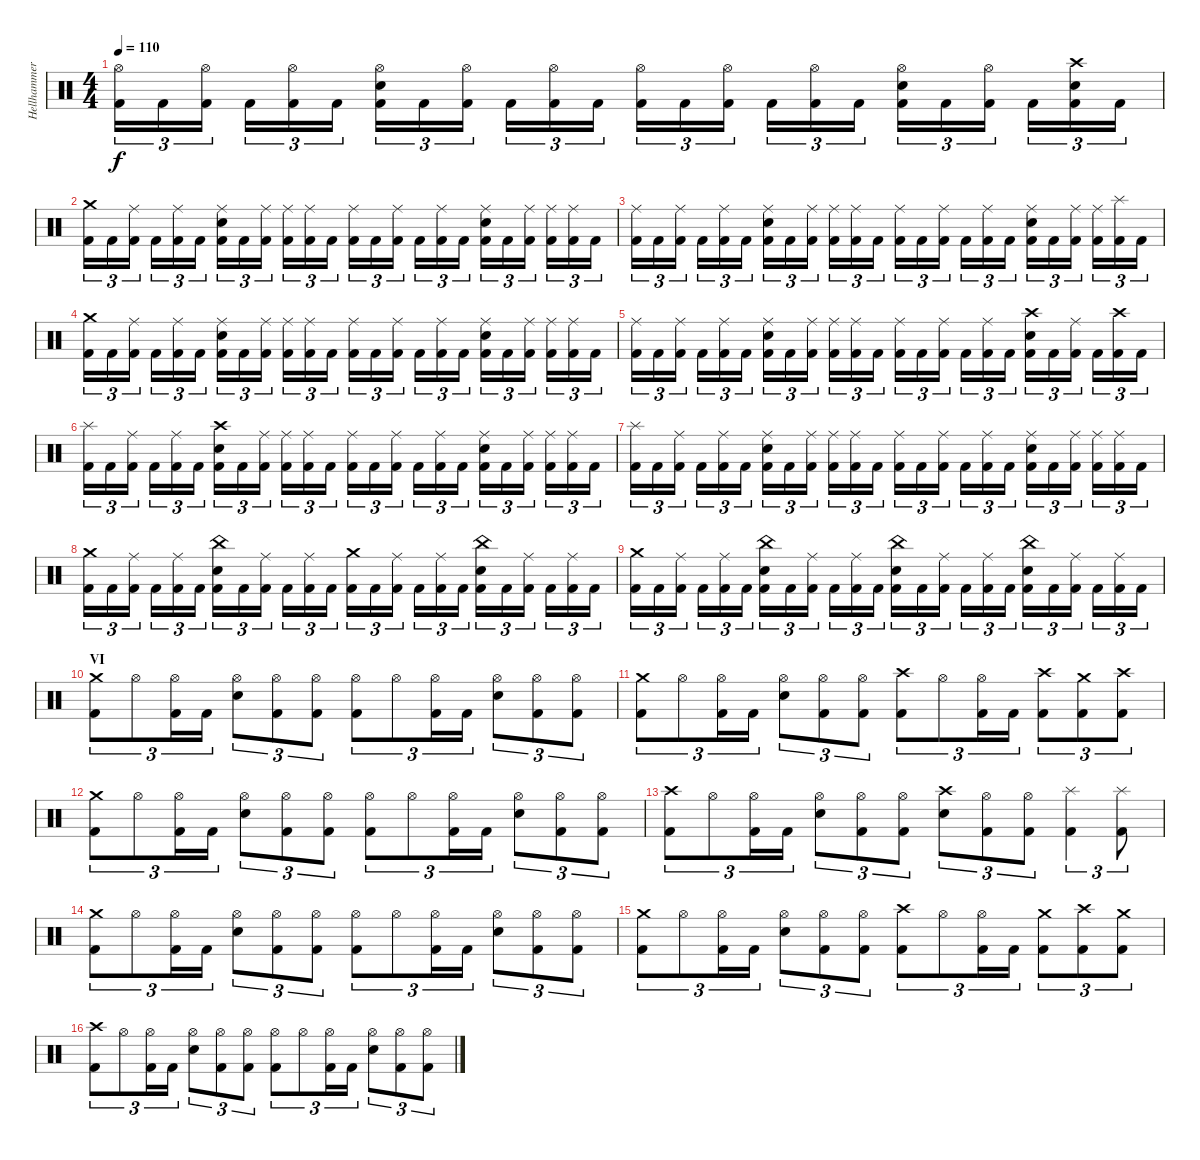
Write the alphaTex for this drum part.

\track ("Hellhammer" "Hellhammer") {instrument percussion}
\staff {score}
\articulation defaults
\ts (4 4)
\tempo 110
\clef neutral
\ks c
("Kick (hit) 2" "Hi-Hat (open)").16{tu (3 2) dy f} "Kick (hit) 2".16{tu (3 2)} ("Kick (hit) 2" "Hi-Hat (open)").16{tu (3 2)} "Kick (hit) 2".16{tu (3 2)} ("Kick (hit) 2" "Hi-Hat (open)").16{tu (3 2)} "Kick (hit) 2".16{tu (3 2)} ("Kick (hit) 2" "Electric Snare (hit)" "Hi-Hat (open)").16{tu (3 2)} "Kick (hit) 2".16{tu (3 2)} ("Kick (hit) 2" "Hi-Hat (open)").16{tu (3 2)} "Kick (hit) 2".16{tu (3 2)} ("Kick (hit) 2" "Hi-Hat (open)").16{tu (3 2)} "Kick (hit) 2".16{tu (3 2)} ("Kick (hit) 2" "Hi-Hat (open)").16{tu (3 2)} "Kick (hit) 2".16{tu (3 2)} ("Kick (hit) 2" "Hi-Hat (open)").16{tu (3 2)} "Kick (hit) 2".16{tu (3 2)} ("Kick (hit) 2" "Hi-Hat (open)").16{tu (3 2)} "Kick (hit) 2".16{tu (3 2)} ("Kick (hit) 2" "Electric Snare (hit)" "Hi-Hat (open)").16{tu (3 2)} "Kick (hit) 2".16{tu (3 2)} ("Kick (hit) 2" "Hi-Hat (open)").16{tu (3 2)} "Kick (hit) 2".16{tu (3 2)} ("Kick (hit) 2" "Electric Snare (hit)" "Crash high (hit)").16{tu (3 2)} "Kick (hit) 2".16{tu (3 2)} |
("Kick (hit) 2" "Crash medium (hit)").16{tu (3 2)} "Kick (hit) 2".16{tu (3 2)} ("Kick (hit) 2" "Ride (middle)").16{tu (3 2)} "Kick (hit) 2".16{tu (3 2)} ("Kick (hit) 2" "Ride (middle)").16{tu (3 2)} "Kick (hit) 2".16{tu (3 2)} ("Kick (hit) 2" "Electric Snare (hit)" "Ride (middle)").16{tu (3 2)} "Kick (hit) 2".16{tu (3 2)} ("Kick (hit) 2" "Ride (middle)").16{tu (3 2)} ("Kick (hit) 2" "Ride (middle)").16{tu (3 2)} ("Kick (hit) 2" "Ride (middle)").16{tu (3 2)} "Kick (hit) 2".16{tu (3 2)} ("Kick (hit) 2" "Ride (middle)").16{tu (3 2)} "Kick (hit) 2".16{tu (3 2)} ("Kick (hit) 2" "Ride (middle)").16{tu (3 2)} "Kick (hit) 2".16{tu (3 2)} ("Kick (hit) 2" "Ride (middle)").16{tu (3 2)} "Kick (hit) 2".16{tu (3 2)} ("Kick (hit) 2" "Electric Snare (hit)" "Ride (middle)").16{tu (3 2)} "Kick (hit) 2".16{tu (3 2)} ("Kick (hit) 2" "Ride (middle)").16{tu (3 2)} ("Kick (hit) 2" "Ride (middle)").16{tu (3 2)} ("Kick (hit) 2" "Ride (middle)").16{tu (3 2)} "Kick (hit) 2".16{tu (3 2)} |
("Kick (hit) 2" "Ride (middle)").16{tu (3 2)} "Kick (hit) 2".16{tu (3 2)} ("Kick (hit) 2" "Ride (middle)").16{tu (3 2)} "Kick (hit) 2".16{tu (3 2)} ("Kick (hit) 2" "Ride (middle)").16{tu (3 2)} "Kick (hit) 2".16{tu (3 2)} ("Kick (hit) 2" "Electric Snare (hit)" "Ride (middle)").16{tu (3 2)} "Kick (hit) 2".16{tu (3 2)} ("Kick (hit) 2" "Ride (middle)").16{tu (3 2)} ("Kick (hit) 2" "Ride (middle)").16{tu (3 2)} ("Kick (hit) 2" "Ride (middle)").16{tu (3 2)} "Kick (hit) 2".16{tu (3 2)} ("Kick (hit) 2" "Ride (middle)").16{tu (3 2)} "Kick (hit) 2".16{tu (3 2)} ("Kick (hit) 2" "Ride (middle)").16{tu (3 2)} "Kick (hit) 2".16{tu (3 2)} ("Kick (hit) 2" "Ride (middle)").16{tu (3 2)} "Kick (hit) 2".16{tu (3 2)} ("Kick (hit) 2" "Electric Snare (hit)" "Ride (middle)").16{tu (3 2)} "Kick (hit) 2".16{tu (3 2)} ("Kick (hit) 2" "Ride (middle)").16{tu (3 2)} ("Kick (hit) 2" "Ride (middle)").16{tu (3 2)} ("Kick (hit) 2" "Splash (hit)").16{tu (3 2)} "Kick (hit) 2".16{tu (3 2)} |
("Kick (hit) 2" "Crash medium (hit)").16{tu (3 2)} "Kick (hit) 2".16{tu (3 2)} ("Kick (hit) 2" "Ride (middle)").16{tu (3 2)} "Kick (hit) 2".16{tu (3 2)} ("Kick (hit) 2" "Ride (middle)").16{tu (3 2)} "Kick (hit) 2".16{tu (3 2)} ("Kick (hit) 2" "Electric Snare (hit)" "Ride (middle)").16{tu (3 2)} "Kick (hit) 2".16{tu (3 2)} ("Kick (hit) 2" "Ride (middle)").16{tu (3 2)} ("Kick (hit) 2" "Ride (middle)").16{tu (3 2)} ("Kick (hit) 2" "Ride (middle)").16{tu (3 2)} "Kick (hit) 2".16{tu (3 2)} ("Kick (hit) 2" "Ride (middle)").16{tu (3 2)} "Kick (hit) 2".16{tu (3 2)} ("Kick (hit) 2" "Ride (middle)").16{tu (3 2)} "Kick (hit) 2".16{tu (3 2)} ("Kick (hit) 2" "Ride (middle)").16{tu (3 2)} "Kick (hit) 2".16{tu (3 2)} ("Kick (hit) 2" "Electric Snare (hit)" "Ride (middle)").16{tu (3 2)} "Kick (hit) 2".16{tu (3 2)} ("Kick (hit) 2" "Ride (middle)").16{tu (3 2)} ("Kick (hit) 2" "Ride (middle)").16{tu (3 2)} ("Kick (hit) 2" "Ride (middle)").16{tu (3 2)} "Kick (hit) 2".16{tu (3 2)} |
("Kick (hit) 2" "Ride (middle)").16{tu (3 2)} "Kick (hit) 2".16{tu (3 2)} ("Kick (hit) 2" "Ride (middle)").16{tu (3 2)} "Kick (hit) 2".16{tu (3 2)} ("Kick (hit) 2" "Ride (middle)").16{tu (3 2)} "Kick (hit) 2".16{tu (3 2)} ("Kick (hit) 2" "Electric Snare (hit)" "Ride (middle)").16{tu (3 2)} "Kick (hit) 2".16{tu (3 2)} ("Kick (hit) 2" "Ride (middle)").16{tu (3 2)} ("Kick (hit) 2" "Ride (middle)").16{tu (3 2)} ("Kick (hit) 2" "Ride (middle)").16{tu (3 2)} "Kick (hit) 2".16{tu (3 2)} ("Kick (hit) 2" "Ride (middle)").16{tu (3 2)} "Kick (hit) 2".16{tu (3 2)} ("Kick (hit) 2" "Ride (middle)").16{tu (3 2)} "Kick (hit) 2".16{tu (3 2)} ("Kick (hit) 2" "Ride (middle)").16{tu (3 2)} "Kick (hit) 2".16{tu (3 2)} ("Kick (hit) 2" "Electric Snare (hit)" "Crash high (hit)").16{tu (3 2)} "Kick (hit) 2".16{tu (3 2)} ("Kick (hit) 2" "Ride (middle)").16{tu (3 2)} "Kick (hit) 2".16{tu (3 2)} ("Kick (hit) 2" "Crash high (hit)").16{tu (3 2)} "Kick (hit) 2".16{tu (3 2)} |
("Kick (hit) 2" "Splash (hit)").16{tu (3 2)} "Kick (hit) 2".16{tu (3 2)} ("Kick (hit) 2" "Ride (middle)").16{tu (3 2)} "Kick (hit) 2".16{tu (3 2)} ("Kick (hit) 2" "Ride (middle)").16{tu (3 2)} "Kick (hit) 2".16{tu (3 2)} ("Kick (hit) 2" "Electric Snare (hit)" "Crash high (hit)").16{tu (3 2)} "Kick (hit) 2".16{tu (3 2)} ("Kick (hit) 2" "Ride (middle)").16{tu (3 2)} ("Kick (hit) 2" "Ride (middle)").16{tu (3 2)} ("Kick (hit) 2" "Ride (middle)").16{tu (3 2)} "Kick (hit) 2".16{tu (3 2)} ("Kick (hit) 2" "Ride (middle)").16{tu (3 2)} "Kick (hit) 2".16{tu (3 2)} ("Kick (hit) 2" "Ride (middle)").16{tu (3 2)} "Kick (hit) 2".16{tu (3 2)} ("Kick (hit) 2" "Ride (middle)").16{tu (3 2)} "Kick (hit) 2".16{tu (3 2)} ("Kick (hit) 2" "Electric Snare (hit)" "Ride (middle)").16{tu (3 2)} "Kick (hit) 2".16{tu (3 2)} ("Kick (hit) 2" "Ride (middle)").16{tu (3 2)} ("Kick (hit) 2" "Ride (middle)").16{tu (3 2)} ("Kick (hit) 2" "Ride (middle)").16{tu (3 2)} "Kick (hit) 2".16{tu (3 2)} |
("Kick (hit) 2" "Splash (hit)").16{tu (3 2)} "Kick (hit) 2".16{tu (3 2)} ("Kick (hit) 2" "Ride (middle)").16{tu (3 2)} "Kick (hit) 2".16{tu (3 2)} ("Kick (hit) 2" "Ride (middle)").16{tu (3 2)} "Kick (hit) 2".16{tu (3 2)} ("Kick (hit) 2" "Electric Snare (hit)" "Ride (middle)").16{tu (3 2)} "Kick (hit) 2".16{tu (3 2)} ("Kick (hit) 2" "Ride (middle)").16{tu (3 2)} ("Kick (hit) 2" "Ride (middle)").16{tu (3 2)} ("Kick (hit) 2" "Ride (middle)").16{tu (3 2)} "Kick (hit) 2".16{tu (3 2)} ("Kick (hit) 2" "Ride (middle)").16{tu (3 2)} "Kick (hit) 2".16{tu (3 2)} ("Kick (hit) 2" "Ride (middle)").16{tu (3 2)} "Kick (hit) 2".16{tu (3 2)} ("Kick (hit) 2" "Ride (middle)").16{tu (3 2)} "Kick (hit) 2".16{tu (3 2)} ("Kick (hit) 2" "Electric Snare (hit)" "Ride (middle)").16{tu (3 2)} "Kick (hit) 2".16{tu (3 2)} ("Kick (hit) 2" "Ride (middle)").16{tu (3 2)} ("Kick (hit) 2" "Ride (middle)").16{tu (3 2)} ("Kick (hit) 2" "Ride (middle)").16{tu (3 2)} "Kick (hit) 2".16{tu (3 2)} |
("Kick (hit) 2" "Crash medium (hit)").16{tu (3 2)} "Kick (hit) 2".16{tu (3 2)} ("Kick (hit) 2" "Ride (middle)").16{tu (3 2)} "Kick (hit) 2".16{tu (3 2)} ("Kick (hit) 2" "Ride (middle)").16{tu (3 2)} "Kick (hit) 2".16{tu (3 2)} ("Kick (hit) 2" "Electric Snare (hit)" "China (hit)").16{tu (3 2)} "Kick (hit) 2".16{tu (3 2)} ("Kick (hit) 2" "Ride (middle)").16{tu (3 2)} "Kick (hit) 2".16{tu (3 2)} ("Kick (hit) 2" "Ride (middle)").16{tu (3 2)} "Kick (hit) 2".16{tu (3 2)} ("Kick (hit) 2" "Crash medium (hit)").16{tu (3 2)} "Kick (hit) 2".16{tu (3 2)} ("Kick (hit) 2" "Ride (middle)").16{tu (3 2)} "Kick (hit) 2".16{tu (3 2)} ("Kick (hit) 2" "Ride (middle)").16{tu (3 2)} "Kick (hit) 2".16{tu (3 2)} ("Kick (hit) 2" "Electric Snare (hit)" "China (hit)").16{tu (3 2)} "Kick (hit) 2".16{tu (3 2)} ("Kick (hit) 2" "Ride (middle)").16{tu (3 2)} "Kick (hit) 2".16{tu (3 2)} ("Kick (hit) 2" "Ride (middle)").16{tu (3 2)} "Kick (hit) 2".16{tu (3 2)} |
("Kick (hit) 2" "Crash medium (hit)").16{tu (3 2)} "Kick (hit) 2".16{tu (3 2)} ("Kick (hit) 2" "Ride (middle)").16{tu (3 2)} "Kick (hit) 2".16{tu (3 2)} ("Kick (hit) 2" "Ride (middle)").16{tu (3 2)} "Kick (hit) 2".16{tu (3 2)} ("Kick (hit) 2" "Electric Snare (hit)" "China (hit)").16{tu (3 2)} "Kick (hit) 2".16{tu (3 2)} ("Kick (hit) 2" "Ride (middle)").16{tu (3 2)} "Kick (hit) 2".16{tu (3 2)} ("Kick (hit) 2" "Ride (middle)").16{tu (3 2)} "Kick (hit) 2".16{tu (3 2)} ("Kick (hit) 2" "Electric Snare (hit)" "China (hit)").16{tu (3 2)} "Kick (hit) 2".16{tu (3 2)} ("Kick (hit) 2" "Ride (middle)").16{tu (3 2)} "Kick (hit) 2".16{tu (3 2)} ("Kick (hit) 2" "Ride (middle)").16{tu (3 2)} "Kick (hit) 2".16{tu (3 2)} ("Kick (hit) 2" "Electric Snare (hit)" "China (hit)").16{tu (3 2)} "Kick (hit) 2".16{tu (3 2)} ("Kick (hit) 2" "Ride (middle)").16{tu (3 2)} "Kick (hit) 2".16{tu (3 2)} ("Kick (hit) 2" "Ride (middle)").16{tu (3 2)} "Kick (hit) 2".16{tu (3 2)} |
\section ("" "VI")
("Kick (hit) 2" "Crash medium (hit)").8{tu (3 2)} "Hi-Hat (open)".8{tu (3 2)} ("Kick (hit) 2" "Hi-Hat (open)").16{tu (3 2)} "Kick (hit) 2".16{tu (3 2)} ("Electric Snare (hit)" "Hi-Hat (open)").8{tu (3 2)} ("Kick (hit) 2" "Hi-Hat (open)").8{tu (3 2)} ("Kick (hit) 2" "Hi-Hat (open)").8{tu (3 2)} ("Kick (hit) 2" "Hi-Hat (open)").8{tu (3 2)} "Hi-Hat (open)".8{tu (3 2)} ("Kick (hit) 2" "Hi-Hat (open)").16{tu (3 2)} "Kick (hit) 2".16{tu (3 2)} ("Electric Snare (hit)" "Hi-Hat (open)").8{tu (3 2)} ("Kick (hit) 2" "Hi-Hat (open)").8{tu (3 2)} ("Kick (hit) 2" "Hi-Hat (open)").8{tu (3 2)} |
("Kick (hit) 2" "Crash medium (hit)").8{tu (3 2)} "Hi-Hat (open)".8{tu (3 2)} ("Kick (hit) 2" "Hi-Hat (open)").16{tu (3 2)} "Kick (hit) 2".16{tu (3 2)} ("Electric Snare (hit)" "Hi-Hat (open)").8{tu (3 2)} ("Kick (hit) 2" "Hi-Hat (open)").8{tu (3 2)} ("Kick (hit) 2" "Hi-Hat (open)").8{tu (3 2)} ("Kick (hit) 2" "Crash high (hit)").8{tu (3 2)} "Hi-Hat (open)".8{tu (3 2)} ("Kick (hit) 2" "Hi-Hat (open)").16{tu (3 2)} "Kick (hit) 2".16{tu (3 2)} ("Kick (hit) 2" "Crash high (hit)").8{tu (3 2)} ("Kick (hit) 2" "Crash medium (hit)").8{tu (3 2)} ("Kick (hit) 2" "Crash high (hit)").8{tu (3 2)} |
("Kick (hit) 2" "Crash medium (hit)").8{tu (3 2)} "Hi-Hat (open)".8{tu (3 2)} ("Kick (hit) 2" "Hi-Hat (open)").16{tu (3 2)} "Kick (hit) 2".16{tu (3 2)} ("Electric Snare (hit)" "Hi-Hat (open)").8{tu (3 2)} ("Kick (hit) 2" "Hi-Hat (open)").8{tu (3 2)} ("Kick (hit) 2" "Hi-Hat (open)").8{tu (3 2)} ("Kick (hit) 2" "Hi-Hat (open)").8{tu (3 2)} "Hi-Hat (open)".8{tu (3 2)} ("Kick (hit) 2" "Hi-Hat (open)").16{tu (3 2)} "Kick (hit) 2".16{tu (3 2)} ("Electric Snare (hit)" "Hi-Hat (open)").8{tu (3 2)} ("Kick (hit) 2" "Hi-Hat (open)").8{tu (3 2)} ("Kick (hit) 2" "Hi-Hat (open)").8{tu (3 2)} |
("Kick (hit) 2" "Crash high (hit)").8{tu (3 2)} "Hi-Hat (open)".8{tu (3 2)} ("Kick (hit) 2" "Hi-Hat (open)").16{tu (3 2)} "Kick (hit) 2".16{tu (3 2)} ("Electric Snare (hit)" "Hi-Hat (open)").8{tu (3 2)} ("Kick (hit) 2" "Hi-Hat (open)").8{tu (3 2)} ("Kick (hit) 2" "Hi-Hat (open)").8{tu (3 2)} ("Electric Snare (hit)" "Crash high (hit)").8{tu (3 2)} ("Kick (hit) 2" "Hi-Hat (open)").8{tu (3 2)} ("Kick (hit) 2" "Hi-Hat (open)").8{tu (3 2)} ("Kick (hit) 2" "Splash (hit)").4{tu (3 2)} ("Kick (hit) 2" "Splash (hit)").8{tu (3 2)} |
("Kick (hit) 2" "Crash medium (hit)").8{tu (3 2)} "Hi-Hat (open)".8{tu (3 2)} ("Kick (hit) 2" "Hi-Hat (open)").16{tu (3 2)} "Kick (hit) 2".16{tu (3 2)} ("Electric Snare (hit)" "Hi-Hat (open)").8{tu (3 2)} ("Kick (hit) 2" "Hi-Hat (open)").8{tu (3 2)} ("Kick (hit) 2" "Hi-Hat (open)").8{tu (3 2)} ("Kick (hit) 2" "Hi-Hat (open)").8{tu (3 2)} "Hi-Hat (open)".8{tu (3 2)} ("Kick (hit) 2" "Hi-Hat (open)").16{tu (3 2)} "Kick (hit) 2".16{tu (3 2)} ("Electric Snare (hit)" "Hi-Hat (open)").8{tu (3 2)} ("Kick (hit) 2" "Hi-Hat (open)").8{tu (3 2)} ("Kick (hit) 2" "Hi-Hat (open)").8{tu (3 2)} |
("Kick (hit) 2" "Crash medium (hit)").8{tu (3 2)} "Hi-Hat (open)".8{tu (3 2)} ("Kick (hit) 2" "Hi-Hat (open)").16{tu (3 2)} "Kick (hit) 2".16{tu (3 2)} ("Electric Snare (hit)" "Hi-Hat (open)").8{tu (3 2)} ("Kick (hit) 2" "Hi-Hat (open)").8{tu (3 2)} ("Kick (hit) 2" "Hi-Hat (open)").8{tu (3 2)} ("Kick (hit) 2" "Crash high (hit)").8{tu (3 2)} "Hi-Hat (open)".8{tu (3 2)} ("Kick (hit) 2" "Hi-Hat (open)").16{tu (3 2)} "Kick (hit) 2".16{tu (3 2)} ("Kick (hit) 2" "Crash medium (hit)").8{tu (3 2)} ("Kick (hit) 2" "Crash high (hit)").8{tu (3 2)} ("Kick (hit) 2" "Crash medium (hit)").8{tu (3 2)} |
("Kick (hit) 2" "Crash high (hit)").8{tu (3 2)} "Hi-Hat (open)".8{tu (3 2)} ("Kick (hit) 2" "Hi-Hat (open)").16{tu (3 2)} "Kick (hit) 2".16{tu (3 2)} ("Electric Snare (hit)" "Hi-Hat (open)").8{tu (3 2)} ("Kick (hit) 2" "Hi-Hat (open)").8{tu (3 2)} ("Kick (hit) 2" "Hi-Hat (open)").8{tu (3 2)} ("Kick (hit) 2" "Hi-Hat (open)").8{tu (3 2)} "Hi-Hat (open)".8{tu (3 2)} ("Kick (hit) 2" "Hi-Hat (open)").16{tu (3 2)} "Kick (hit) 2".16{tu (3 2)} ("Electric Snare (hit)" "Hi-Hat (open)").8{tu (3 2)} ("Kick (hit) 2" "Hi-Hat (open)").8{tu (3 2)} ("Kick (hit) 2" "Hi-Hat (open)").8{tu (3 2)}
